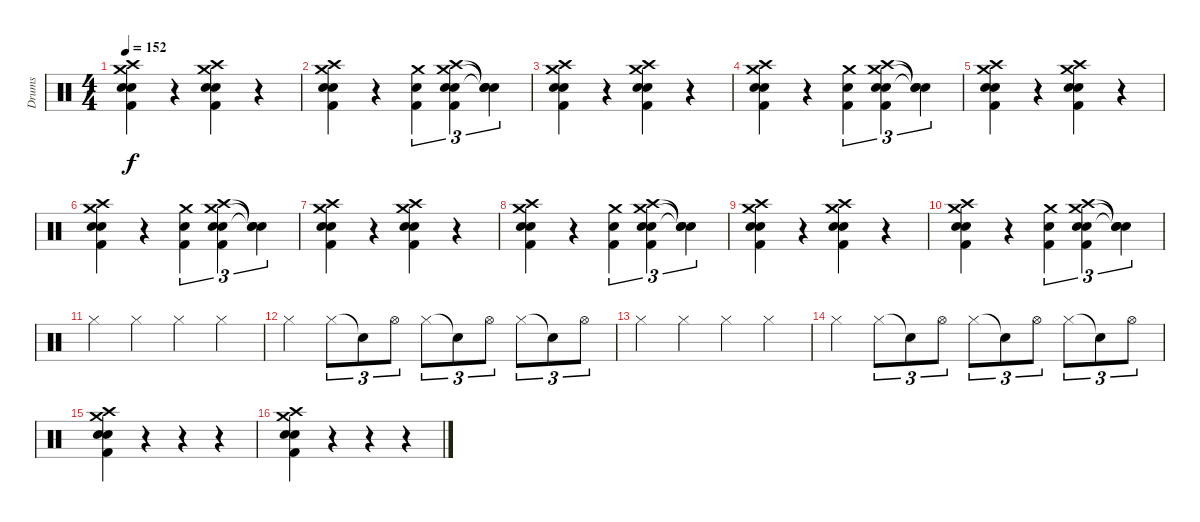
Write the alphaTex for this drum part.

\track ("Drums" "Drums") {instrument percussion}
\staff {score}
\articulation defaults
\ts (4 4)
\tempo 152
\clef neutral
\ks c
("Crash high (hit)" "Crash medium (hit)" "Snare (hit) 2" "Kick (hit) 2" "Snare (hit) 2").4{dy f} r.4 ("Crash high (hit)" "Crash medium (hit)" "Snare (hit) 2" "Kick (hit) 2" "Snare (hit) 2").4 r.4 |
("Crash high (hit)" "Crash medium (hit)" "Snare (hit) 2" "Kick (hit) 2" "Snare (hit) 2").4 r.4 ("Crash medium (hit)" "Kick (hit) 2" "Snare (hit) 2").4{tu (3 2)} ("Crash high (hit)" "Crash medium (hit)" "Snare (hit) 2" "Kick (hit) 2" "Snare (hit) 2").4{tu (3 2)} ("Snare (hit)"{t} "Snare (hit)"{t} "Snare (hit)"{t}).4{tu (3 2)} |
("Crash high (hit)" "Crash medium (hit)" "Snare (hit) 2" "Kick (hit) 2" "Snare (hit) 2").4 r.4 ("Crash high (hit)" "Crash medium (hit)" "Snare (hit) 2" "Kick (hit) 2" "Snare (hit) 2").4 r.4 |
("Crash high (hit)" "Crash medium (hit)" "Snare (hit) 2" "Kick (hit) 2" "Snare (hit) 2").4 r.4 ("Crash medium (hit)" "Kick (hit) 2" "Snare (hit) 2").4{tu (3 2)} ("Crash high (hit)" "Crash medium (hit)" "Snare (hit) 2" "Kick (hit) 2" "Snare (hit) 2").4{tu (3 2)} ("Snare (hit)"{t} "Snare (hit)"{t} "Snare (hit)"{t}).4{tu (3 2)} |
("Crash high (hit)" "Crash medium (hit)" "Snare (hit) 2" "Kick (hit) 2" "Snare (hit) 2").4 r.4 ("Crash high (hit)" "Crash medium (hit)" "Snare (hit) 2" "Kick (hit) 2" "Snare (hit) 2").4 r.4 |
("Crash high (hit)" "Crash medium (hit)" "Snare (hit) 2" "Kick (hit) 2" "Snare (hit) 2").4 r.4 ("Crash medium (hit)" "Kick (hit) 2" "Snare (hit) 2").4{tu (3 2)} ("Crash high (hit)" "Crash medium (hit)" "Snare (hit) 2" "Kick (hit) 2" "Snare (hit) 2").4{tu (3 2)} ("Snare (hit)"{t} "Snare (hit)"{t} "Snare (hit)"{t}).4{tu (3 2)} |
("Crash high (hit)" "Crash medium (hit)" "Snare (hit) 2" "Kick (hit) 2" "Snare (hit) 2").4 r.4 ("Crash high (hit)" "Crash medium (hit)" "Snare (hit) 2" "Kick (hit) 2" "Snare (hit) 2").4 r.4 |
("Crash high (hit)" "Crash medium (hit)" "Snare (hit) 2" "Kick (hit) 2" "Snare (hit) 2").4 r.4 ("Crash medium (hit)" "Kick (hit) 2" "Snare (hit) 2").4{tu (3 2)} ("Crash high (hit)" "Crash medium (hit)" "Snare (hit) 2" "Kick (hit) 2" "Snare (hit) 2").4{tu (3 2)} ("Snare (hit)"{t} "Snare (hit)"{t} "Snare (hit)"{t}).4{tu (3 2)} |
("Crash high (hit)" "Crash medium (hit)" "Snare (hit) 2" "Kick (hit) 2" "Snare (hit) 2").4 r.4 ("Crash high (hit)" "Crash medium (hit)" "Snare (hit) 2" "Kick (hit) 2" "Snare (hit) 2").4 r.4 |
("Crash high (hit)" "Crash medium (hit)" "Snare (hit) 2" "Kick (hit) 2" "Snare (hit) 2").4 r.4 ("Crash medium (hit)" "Kick (hit) 2" "Snare (hit) 2").4{tu (3 2)} ("Crash high (hit)" "Crash medium (hit)" "Snare (hit) 2" "Kick (hit) 2" "Snare (hit) 2").4{tu (3 2)} ("Snare (hit)"{t} "Snare (hit)"{t} "Snare (hit)"{t}).4{tu (3 2)} |
"Hi-Hat (closed)".4 "Hi-Hat (closed)".4 "Hi-Hat (closed)".4 "Hi-Hat (closed)".4 |
"Hi-Hat (closed)".4 "Hi-Hat (closed)".8{tu (3 2)} "Snare (hit)"{t}.8{tu (3 2)} "Hi-Hat (open)".8{tu (3 2)} "Hi-Hat (closed)".8{tu (3 2)} "Snare (hit)"{t}.8{tu (3 2)} "Hi-Hat (open)".8{tu (3 2)} "Hi-Hat (closed)".8{tu (3 2)} "Snare (hit)"{t}.8{tu (3 2)} "Hi-Hat (open)".8{tu (3 2)} |
"Hi-Hat (closed)".4 "Hi-Hat (closed)".4 "Hi-Hat (closed)".4 "Hi-Hat (closed)".4 |
"Hi-Hat (closed)".4 "Hi-Hat (closed)".8{tu (3 2)} "Snare (hit)"{t}.8{tu (3 2)} "Hi-Hat (open)".8{tu (3 2)} "Hi-Hat (closed)".8{tu (3 2)} "Snare (hit)"{t}.8{tu (3 2)} "Hi-Hat (open)".8{tu (3 2)} "Hi-Hat (closed)".8{tu (3 2)} "Snare (hit)"{t}.8{tu (3 2)} "Hi-Hat (open)".8{tu (3 2)} |
("Crash medium (hit)" "Snare (hit) 2" "Snare (hit) 2" "Kick (hit) 2" "Crash high (hit)").4 r.4 r.4 r.4 |
("Crash medium (hit)" "Snare (hit) 2" "Snare (hit) 2" "Kick (hit) 2" "Crash high (hit)").4 r.4 r.4 r.4
